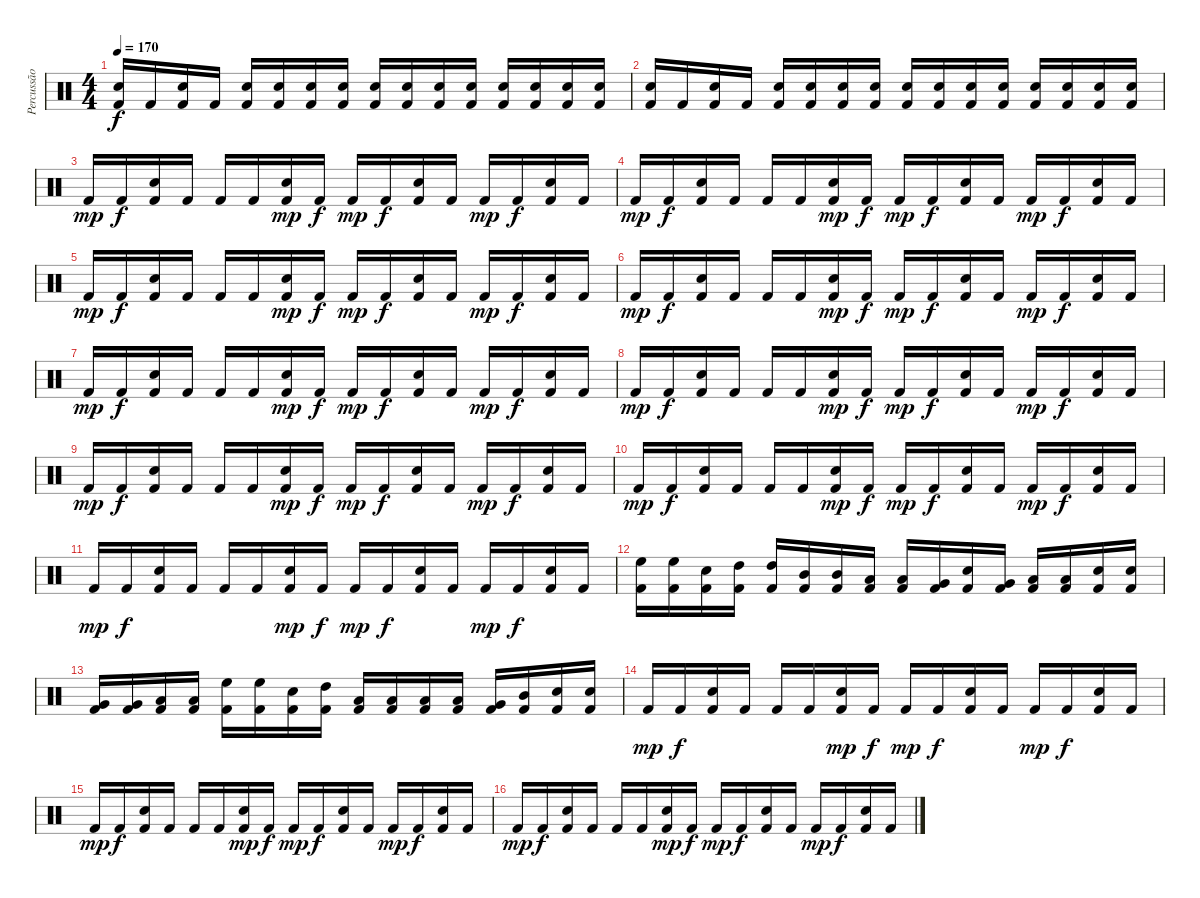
\track ("Percussão" "Percussão") {instrument percussion}
\staff {score}
\articulation defaults
\ts (4 4)
\tempo 170
\clef neutral
\ks c
("Electric Snare (hit)" "Kick (hit) 2").16{dy f} "Kick (hit) 2".16 ("Electric Snare (hit)" "Kick (hit) 2").16 "Kick (hit) 2".16 ("Electric Snare (hit)" "Kick (hit) 2").16 ("Electric Snare (hit)" "Kick (hit) 2").16 ("Electric Snare (hit)" "Kick (hit) 2").16 ("Electric Snare (hit)" "Kick (hit) 2").16 ("Electric Snare (hit)" "Kick (hit) 2").16 ("Electric Snare (hit)" "Kick (hit) 2").16 ("Electric Snare (hit)" "Kick (hit) 2").16 ("Electric Snare (hit)" "Kick (hit) 2").16 ("Electric Snare (hit)" "Kick (hit) 2").16 ("Electric Snare (hit)" "Kick (hit) 2").16 ("Electric Snare (hit)" "Kick (hit) 2").16 ("Electric Snare (hit)" "Kick (hit) 2").16 |
("Electric Snare (hit)" "Kick (hit) 2").16 "Kick (hit) 2".16 ("Electric Snare (hit)" "Kick (hit) 2").16 "Kick (hit) 2".16 ("Electric Snare (hit)" "Kick (hit) 2").16 ("Electric Snare (hit)" "Kick (hit) 2").16 ("Electric Snare (hit)" "Kick (hit) 2").16 ("Electric Snare (hit)" "Kick (hit) 2").16 ("Electric Snare (hit)" "Kick (hit) 2").16 ("Electric Snare (hit)" "Kick (hit) 2").16 ("Electric Snare (hit)" "Kick (hit) 2").16 ("Electric Snare (hit)" "Kick (hit) 2").16 ("Electric Snare (hit)" "Kick (hit) 2").16 ("Electric Snare (hit)" "Kick (hit) 2").16 ("Electric Snare (hit)" "Kick (hit) 2").16 ("Electric Snare (hit)" "Kick (hit) 2").16 |
"Kick (hit) 2".16{dy mp} "Kick (hit) 2".16{dy f} ("Electric Snare (hit)" "Kick (hit) 2").16 "Kick (hit) 2".16 "Kick (hit) 2".16 "Kick (hit) 2".16 ("Electric Snare (hit)" "Kick (hit) 2").16{dy mp} "Kick (hit) 2".16{dy f} "Kick (hit) 2".16{dy mp} "Kick (hit) 2".16{dy f} ("Electric Snare (hit)" "Kick (hit) 2").16 "Kick (hit) 2".16 "Kick (hit) 2".16{dy mp} "Kick (hit) 2".16{dy f} ("Electric Snare (hit)" "Kick (hit) 2").16 "Kick (hit) 2".16 |
"Kick (hit) 2".16{dy mp} "Kick (hit) 2".16{dy f} ("Electric Snare (hit)" "Kick (hit) 2").16 "Kick (hit) 2".16 "Kick (hit) 2".16 "Kick (hit) 2".16 ("Electric Snare (hit)" "Kick (hit) 2").16{dy mp} "Kick (hit) 2".16{dy f} "Kick (hit) 2".16{dy mp} "Kick (hit) 2".16{dy f} ("Electric Snare (hit)" "Kick (hit) 2").16 "Kick (hit) 2".16 "Kick (hit) 2".16{dy mp} "Kick (hit) 2".16{dy f} ("Electric Snare (hit)" "Kick (hit) 2").16 "Kick (hit) 2".16 |
"Kick (hit) 2".16{dy mp} "Kick (hit) 2".16{dy f} ("Electric Snare (hit)" "Kick (hit) 2").16 "Kick (hit) 2".16 "Kick (hit) 2".16 "Kick (hit) 2".16 ("Electric Snare (hit)" "Kick (hit) 2").16{dy mp} "Kick (hit) 2".16{dy f} "Kick (hit) 2".16{dy mp} "Kick (hit) 2".16{dy f} ("Electric Snare (hit)" "Kick (hit) 2").16 "Kick (hit) 2".16 "Kick (hit) 2".16{dy mp} "Kick (hit) 2".16{dy f} ("Electric Snare (hit)" "Kick (hit) 2").16 "Kick (hit) 2".16 |
"Kick (hit) 2".16{dy mp} "Kick (hit) 2".16{dy f} ("Electric Snare (hit)" "Kick (hit) 2").16 "Kick (hit) 2".16 "Kick (hit) 2".16 "Kick (hit) 2".16 ("Electric Snare (hit)" "Kick (hit) 2").16{dy mp} "Kick (hit) 2".16{dy f} "Kick (hit) 2".16{dy mp} "Kick (hit) 2".16{dy f} ("Electric Snare (hit)" "Kick (hit) 2").16 "Kick (hit) 2".16 "Kick (hit) 2".16{dy mp} "Kick (hit) 2".16{dy f} ("Electric Snare (hit)" "Kick (hit) 2").16 "Kick (hit) 2".16 |
"Kick (hit) 2".16{dy mp} "Kick (hit) 2".16{dy f} ("Electric Snare (hit)" "Kick (hit) 2").16 "Kick (hit) 2".16 "Kick (hit) 2".16 "Kick (hit) 2".16 ("Electric Snare (hit)" "Kick (hit) 2").16{dy mp} "Kick (hit) 2".16{dy f} "Kick (hit) 2".16{dy mp} "Kick (hit) 2".16{dy f} ("Electric Snare (hit)" "Kick (hit) 2").16 "Kick (hit) 2".16 "Kick (hit) 2".16{dy mp} "Kick (hit) 2".16{dy f} ("Electric Snare (hit)" "Kick (hit) 2").16 "Kick (hit) 2".16 |
"Kick (hit) 2".16{dy mp} "Kick (hit) 2".16{dy f} ("Electric Snare (hit)" "Kick (hit) 2").16 "Kick (hit) 2".16 "Kick (hit) 2".16 "Kick (hit) 2".16 ("Electric Snare (hit)" "Kick (hit) 2").16{dy mp} "Kick (hit) 2".16{dy f} "Kick (hit) 2".16{dy mp} "Kick (hit) 2".16{dy f} ("Electric Snare (hit)" "Kick (hit) 2").16 "Kick (hit) 2".16 "Kick (hit) 2".16{dy mp} "Kick (hit) 2".16{dy f} ("Electric Snare (hit)" "Kick (hit) 2").16 "Kick (hit) 2".16 |
"Kick (hit) 2".16{dy mp} "Kick (hit) 2".16{dy f} ("Electric Snare (hit)" "Kick (hit) 2").16 "Kick (hit) 2".16 "Kick (hit) 2".16 "Kick (hit) 2".16 ("Electric Snare (hit)" "Kick (hit) 2").16{dy mp} "Kick (hit) 2".16{dy f} "Kick (hit) 2".16{dy mp} "Kick (hit) 2".16{dy f} ("Electric Snare (hit)" "Kick (hit) 2").16 "Kick (hit) 2".16 "Kick (hit) 2".16{dy mp} "Kick (hit) 2".16{dy f} ("Electric Snare (hit)" "Kick (hit) 2").16 "Kick (hit) 2".16 |
"Kick (hit) 2".16{dy mp} "Kick (hit) 2".16{dy f} ("Electric Snare (hit)" "Kick (hit) 2").16 "Kick (hit) 2".16 "Kick (hit) 2".16 "Kick (hit) 2".16 ("Electric Snare (hit)" "Kick (hit) 2").16{dy mp} "Kick (hit) 2".16{dy f} "Kick (hit) 2".16{dy mp} "Kick (hit) 2".16{dy f} ("Electric Snare (hit)" "Kick (hit) 2").16 "Kick (hit) 2".16 "Kick (hit) 2".16{dy mp} "Kick (hit) 2".16{dy f} ("Electric Snare (hit)" "Kick (hit) 2").16 "Kick (hit) 2".16 |
"Kick (hit) 2".16{dy mp} "Kick (hit) 2".16{dy f} ("Electric Snare (hit)" "Kick (hit) 2").16 "Kick (hit) 2".16 "Kick (hit) 2".16 "Kick (hit) 2".16 ("Electric Snare (hit)" "Kick (hit) 2").16{dy mp} "Kick (hit) 2".16{dy f} "Kick (hit) 2".16{dy mp} "Kick (hit) 2".16{dy f} ("Electric Snare (hit)" "Kick (hit) 2").16 "Kick (hit) 2".16 "Kick (hit) 2".16{dy mp} "Kick (hit) 2".16{dy f} ("Electric Snare (hit)" "Kick (hit) 2").16 "Kick (hit) 2".16 |
("High Floor Tom (hit)" "Kick (hit) 2").16 ("High Floor Tom (hit)" "Kick (hit) 2").16 ("Electric Snare (hit)" "Kick (hit) 2").16 ("High Tom (hit)" "Kick (hit) 2").16 ("High Tom (hit)" "Kick (hit) 2").16 ("Mid Tom (hit)" "Kick (hit) 2").16 ("Mid Tom (hit)" "Kick (hit) 2").16 ("Low Tom (hit)" "Kick (hit) 2").16 ("Low Tom (hit)" "Kick (hit) 2").16 ("Very Low Tom (hit)" "Kick (hit) 2").16 ("Electric Snare (hit)" "Kick (hit) 2").16 ("Very Low Tom (hit)" "Kick (hit) 2").16 ("Low Floor Tom (hit)" "Kick (hit) 2").16 ("Low Floor Tom (hit)" "Kick (hit) 2").16 ("Electric Snare (hit)" "Kick (hit) 2").16 ("Electric Snare (hit)" "Kick (hit) 2").16 |
("Very Low Tom (hit)" "Kick (hit) 2").16 ("Very Low Tom (hit)" "Kick (hit) 2").16 ("Low Floor Tom (hit)" "Kick (hit) 2").16 ("Low Floor Tom (hit)" "Kick (hit) 2").16 ("High Floor Tom (hit)" "Kick (hit) 2").16 ("High Floor Tom (hit)" "Kick (hit) 2").16 ("Electric Snare (hit)" "Kick (hit) 2").16 ("High Tom (hit)" "Kick (hit) 2").16 ("Low Floor Tom (hit)" "Kick (hit) 2").16 ("Low Floor Tom (hit)" "Kick (hit) 2").16 ("Low Tom (hit)" "Kick (hit) 2").16 ("Low Tom (hit)" "Kick (hit) 2").16 ("Very Low Tom (hit)" "Kick (hit) 2").16 ("Mid Tom (hit)" "Kick (hit) 2").16 ("Electric Snare (hit)" "Kick (hit) 2").16 ("Electric Snare (hit)" "Kick (hit) 2").16 |
"Kick (hit) 2".16{dy mp} "Kick (hit) 2".16{dy f} ("Electric Snare (hit)" "Kick (hit) 2").16 "Kick (hit) 2".16 "Kick (hit) 2".16 "Kick (hit) 2".16 ("Electric Snare (hit)" "Kick (hit) 2").16{dy mp} "Kick (hit) 2".16{dy f} "Kick (hit) 2".16{dy mp} "Kick (hit) 2".16{dy f} ("Electric Snare (hit)" "Kick (hit) 2").16 "Kick (hit) 2".16 "Kick (hit) 2".16{dy mp} "Kick (hit) 2".16{dy f} ("Electric Snare (hit)" "Kick (hit) 2").16 "Kick (hit) 2".16 |
"Kick (hit) 2".16{dy mp} "Kick (hit) 2".16{dy f} ("Electric Snare (hit)" "Kick (hit) 2").16 "Kick (hit) 2".16 "Kick (hit) 2".16 "Kick (hit) 2".16 ("Electric Snare (hit)" "Kick (hit) 2").16{dy mp} "Kick (hit) 2".16{dy f} "Kick (hit) 2".16{dy mp} "Kick (hit) 2".16{dy f} ("Electric Snare (hit)" "Kick (hit) 2").16 "Kick (hit) 2".16 "Kick (hit) 2".16{dy mp} "Kick (hit) 2".16{dy f} ("Electric Snare (hit)" "Kick (hit) 2").16 "Kick (hit) 2".16 |
"Kick (hit) 2".16{dy mp} "Kick (hit) 2".16{dy f} ("Electric Snare (hit)" "Kick (hit) 2").16 "Kick (hit) 2".16 "Kick (hit) 2".16 "Kick (hit) 2".16 ("Electric Snare (hit)" "Kick (hit) 2").16{dy mp} "Kick (hit) 2".16{dy f} "Kick (hit) 2".16{dy mp} "Kick (hit) 2".16{dy f} ("Electric Snare (hit)" "Kick (hit) 2").16 "Kick (hit) 2".16 "Kick (hit) 2".16{dy mp} "Kick (hit) 2".16{dy f} ("Electric Snare (hit)" "Kick (hit) 2").16 "Kick (hit) 2".16
